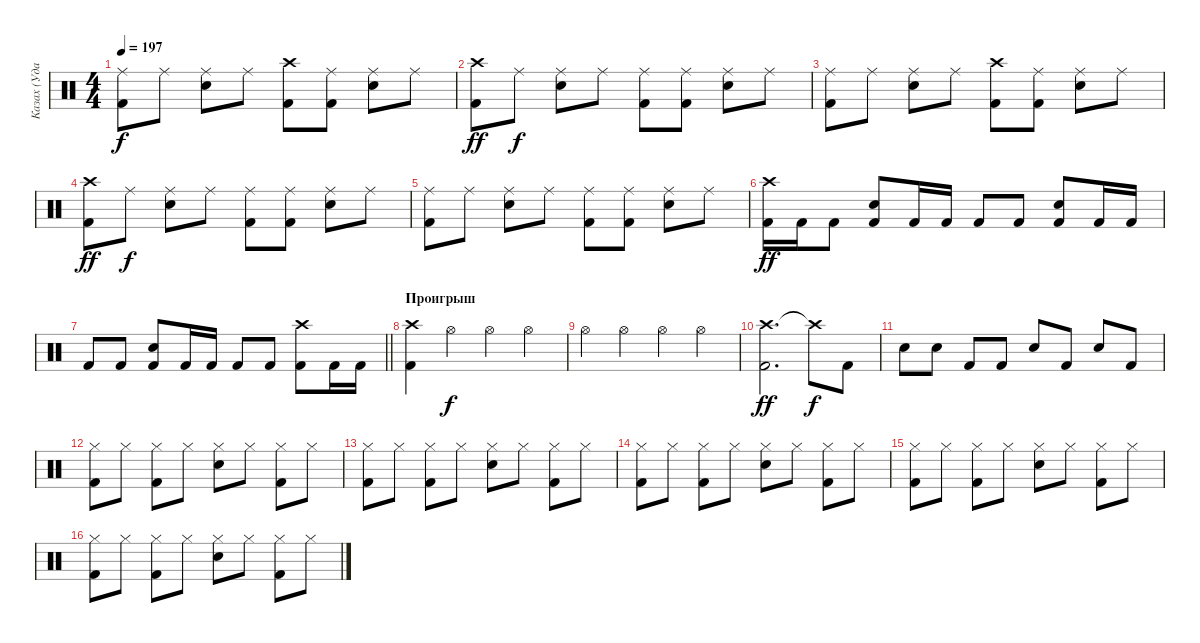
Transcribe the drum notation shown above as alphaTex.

\track ("Казах (Ударные)" "Казах (Уда") {instrument percussion}
\staff {score}
\articulation defaults
\ts (4 4)
\tempo 197
\clef neutral
\ks c
("Ride (middle)" "Kick (hit) 2").8{dy f} "Ride (middle)".8 ("Ride (middle)" "Electric Snare (hit)").8 "Ride (middle)".8 ("Crash high (hit)" "Kick (hit) 2").8 ("Ride (middle)" "Kick (hit) 2").8 ("Ride (middle)" "Electric Snare (hit)").8 "Ride (middle)".8 |
("Crash high (hit)" "Kick (hit) 2").8{dy ff} "Ride (middle)".8{dy f} ("Ride (middle)" "Electric Snare (hit)").8 "Ride (middle)".8 ("Ride (middle)" "Kick (hit) 2").8 ("Ride (middle)" "Kick (hit) 2").8 ("Ride (middle)" "Electric Snare (hit)").8 "Ride (middle)".8 |
("Ride (middle)" "Kick (hit) 2").8 "Ride (middle)".8 ("Ride (middle)" "Electric Snare (hit)").8 "Ride (middle)".8 ("Crash high (hit)" "Kick (hit) 2").8 ("Ride (middle)" "Kick (hit) 2").8 ("Ride (middle)" "Electric Snare (hit)").8 "Ride (middle)".8 |
("Crash high (hit)" "Kick (hit) 2").8{dy ff} "Ride (middle)".8{dy f} ("Ride (middle)" "Electric Snare (hit)").8 "Ride (middle)".8 ("Ride (middle)" "Kick (hit) 2").8 ("Ride (middle)" "Kick (hit) 2").8 ("Ride (middle)" "Electric Snare (hit)").8 "Ride (middle)".8 |
("Ride (middle)" "Kick (hit) 2").8 "Ride (middle)".8 ("Ride (middle)" "Electric Snare (hit)").8 "Ride (middle)".8 ("Ride (middle)" "Kick (hit) 2").8 ("Ride (middle)" "Kick (hit) 2").8 ("Ride (middle)" "Electric Snare (hit)").8 "Ride (middle)".8 |
("Crash high (hit)" "Kick (hit) 2").16{dy ff} "Kick (hit) 2".16 "Kick (hit) 2".8 ("Electric Snare (hit)" "Kick (hit) 2").8 "Kick (hit) 2".16 "Kick (hit) 2".16 "Kick (hit) 2".8 "Kick (hit) 2".8 ("Electric Snare (hit)" "Kick (hit) 2").8 "Kick (hit) 2".16 "Kick (hit) 2".16 |
\barLineRight lightlight "Kick (hit) 2".8 "Kick (hit) 2".8
("Electric Snare (hit)" "Kick (hit) 2").8 "Kick (hit) 2".16 "Kick (hit) 2".16 "Kick (hit) 2".8 "Kick (hit) 2".8 ("Crash high (hit)" "Kick (hit) 2").8 "Kick (hit) 2".16 "Kick (hit) 2".16 |
\section ("" "Проигрыш")
("Crash high (hit)" "Kick (hit) 2").4 "Hi-Hat (open)".4{dy f} "Hi-Hat (open)".4 "Hi-Hat (open)".4 |
"Hi-Hat (open)".4 "Hi-Hat (open)".4 "Hi-Hat (open)".4 "Hi-Hat (open)".4 |
("Crash high (hit)" "Kick (hit) 2").2{d dy ff} "Crash high (hit)"{t}.8{dy f} "Kick (hit) 2".8 |
"Electric Snare (hit)".8 "Electric Snare (hit)".8 "Kick (hit) 2".8 "Kick (hit) 2".8 "Electric Snare (hit)".8 "Kick (hit) 2".8 "Electric Snare (hit)".8 "Kick (hit) 2".8 |
("Hi-Hat (closed)" "Kick (hit) 2").8 "Hi-Hat (closed)".8 ("Hi-Hat (closed)" "Kick (hit) 2").8 "Hi-Hat (closed)".8 ("Hi-Hat (closed)" "Electric Snare (hit)").8 "Hi-Hat (closed)".8 ("Hi-Hat (closed)" "Kick (hit) 2").8 "Hi-Hat (closed)".8 |
("Hi-Hat (closed)" "Kick (hit) 2").8 "Hi-Hat (closed)".8 ("Hi-Hat (closed)" "Kick (hit) 2").8 "Hi-Hat (closed)".8 ("Hi-Hat (closed)" "Electric Snare (hit)").8 "Hi-Hat (closed)".8 ("Hi-Hat (closed)" "Kick (hit) 2").8 "Hi-Hat (closed)".8 |
("Hi-Hat (closed)" "Kick (hit) 2").8 "Hi-Hat (closed)".8 ("Hi-Hat (closed)" "Kick (hit) 2").8 "Hi-Hat (closed)".8 ("Hi-Hat (closed)" "Electric Snare (hit)").8 "Hi-Hat (closed)".8 ("Hi-Hat (closed)" "Kick (hit) 2").8 "Hi-Hat (closed)".8 |
("Hi-Hat (closed)" "Kick (hit) 2").8 "Hi-Hat (closed)".8 ("Hi-Hat (closed)" "Kick (hit) 2").8 "Hi-Hat (closed)".8 ("Hi-Hat (closed)" "Electric Snare (hit)").8 "Hi-Hat (closed)".8 ("Hi-Hat (closed)" "Kick (hit) 2").8 "Hi-Hat (closed)".8 |
("Hi-Hat (closed)" "Kick (hit) 2").8 "Hi-Hat (closed)".8 ("Hi-Hat (closed)" "Kick (hit) 2").8 "Hi-Hat (closed)".8 ("Hi-Hat (closed)" "Electric Snare (hit)").8 "Hi-Hat (closed)".8 ("Hi-Hat (closed)" "Kick (hit) 2").8 "Hi-Hat (closed)".8
